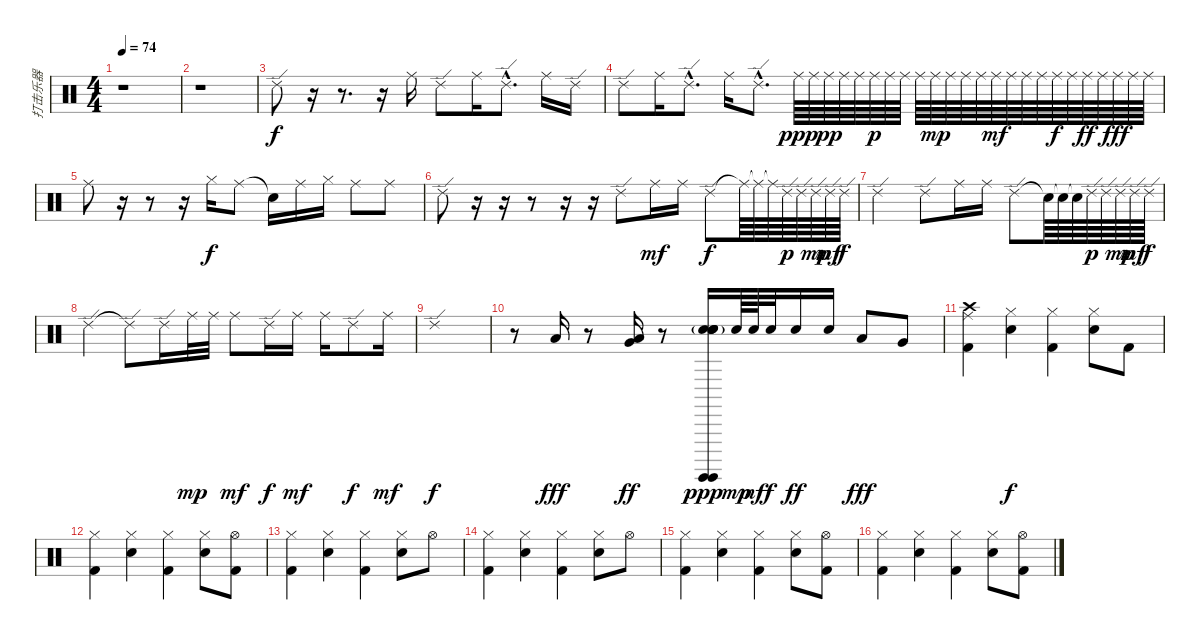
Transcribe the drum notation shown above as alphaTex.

\track ("打击乐器" "打击乐器") {instrument percussion}
\staff {score}
\articulation defaults
\ts (4 4)
\tempo 74
\clef neutral
\ks c
r.1{dy f} |
r.1 |
"Ride (edge) 2".8{volume 9} r.16 r.8{d} r.16 "Ride (middle)".16 "Ride (edge) 2".8 "Ride (middle)".16 "Ride (edge) 2"{hac}.8{d} "Ride (middle)".16 "Ride (edge) 2".16 |
"Ride (edge) 2".8 "Ride (middle)".16 "Ride (edge) 2"{hac}.8{d} "Ride (middle)".16 "Ride (edge) 2"{hac}.8{d} "Ride (middle)".64{dy ppp} "Ride (middle)".64 "Ride (middle)".64{dy pp} "Ride (middle)".64 "Ride (middle)".64 "Ride (middle)".64{dy p} "Ride (middle)".64 "Ride (middle)".64 "Ride (middle)".64 "Ride (middle)".64{dy mp} "Ride (middle)".64 "Ride (middle)".64 "Ride (middle)".64 "Ride (middle)".64{dy mf} "Ride (middle)".64 "Ride (middle)".64 "Ride (middle)".64 "Ride (middle)".64{dy f} "Ride (middle)".64 "Ride (middle)".64{dy ff} "Ride (middle)".64 "Ride (middle)".64{dy fff} "Ride (middle)".64 "Ride (middle)".64 |
"Ride (middle)".8 r.16 r.8 r.16 "Hi-Hat (closed)".16{dy f} "Ride (middle)".8 "Snare (hit)"{t}.16 "Ride (middle)".16 "Hi-Hat (closed)".16 "Ride (middle)".8 "Ride (middle)".8 |
"Ride (edge) 2".8 r.16 r.16 r.8 r.16 r.16 "Ride (edge) 2".8 "Ride (middle)".16{dy mf} "Ride (middle)".16 "Ride (edge) 2".8{dy f} "Ride (middle)"{t}.64 "Ride (middle)"{t}.64 "Ride (middle)"{t}.64 "Ride (edge) 2".64{dy p} "Ride (edge) 2".64 "Ride (edge) 2".64{dy mp} "Ride (edge) 2".64{dy mf} "Ride (edge) 2".64{dy f} |
"Ride (edge) 2".2 "Ride (edge) 2".8 "Ride (middle)".16 "Ride (middle)".16 "Ride (edge) 2".8 "Snare (hit)"{t}.64 "Snare (hit)"{t}.64 "Snare (hit)"{t}.64 "Ride (edge) 2".64{dy p} "Ride (edge) 2".64 "Ride (edge) 2".64{dy mp} "Ride (edge) 2".64{dy mf} "Ride (edge) 2".64{dy f} |
"Ride (edge) 2".4 "Ride (edge) 2"{t}.8 "Ride (edge) 2".16 "Ride (middle)".32{dy mp} "Ride (middle)".32 "Ride (middle)".8{dy mf} "Ride (edge) 2".16{dy f} "Ride (middle)".16{dy mf} "Ride (middle)".16 "Ride (edge) 2".8{dy f} "Ride (middle)".16{dy mf} |
"Ride (edge) 2".1{dy f} |
r.8{volume 14} "Low Tom (hit)".16{dy fff} r.8 ("Low Tom (hit)" "Very Low Tom (hit)").16{dy ff} r.8 ("Electric Snare (hit)"{g} "Electric Snare (hit)"{g} "Electric Snare (hit)"{g} "Surdo (hit)" "Surdo (hit)" "Electric Snare (hit)").16{bd 480 dy ppp} "Electric Snare (hit)".64{dy mp} "Electric Snare (hit)".64{dy mf} "Electric Snare (hit)".32{dy f} "Electric Snare (hit)".16{dy ff} "Electric Snare (hit)".16 "Low Tom (hit)".8{dy fff} "Very Low Tom (hit)".8 |
("Ride (middle)" "Crash high (hit)" "Kick (hit) 2").4 ("Electric Snare (hit)" "Hi-Hat (closed)").4{dy f} ("Hi-Hat (closed)" "Kick (hit) 2").4 ("Electric Snare (hit)" "Hi-Hat (closed)").8 "Kick (hit) 2".8 |
("Hi-Hat (closed)" "Kick (hit) 2").4 ("Electric Snare (hit)" "Hi-Hat (closed)").4 ("Hi-Hat (closed)" "Kick (hit) 2").4 ("Electric Snare (hit)" "Hi-Hat (closed)").8 ("Hi-Hat (open)" "Kick (hit) 2").8 |
("Hi-Hat (closed)" "Kick (hit) 2").4 ("Electric Snare (hit)" "Hi-Hat (closed)").4 ("Hi-Hat (closed)" "Kick (hit) 2").4 ("Electric Snare (hit)" "Hi-Hat (closed)").8 "Hi-Hat (open)".8 |
("Hi-Hat (closed)" "Kick (hit) 2").4 ("Electric Snare (hit)" "Hi-Hat (closed)").4 ("Hi-Hat (closed)" "Kick (hit) 2").4 ("Electric Snare (hit)" "Hi-Hat (closed)").8 "Hi-Hat (open)".8 |
("Hi-Hat (closed)" "Kick (hit) 2").4 ("Electric Snare (hit)" "Hi-Hat (closed)").4 ("Hi-Hat (closed)" "Kick (hit) 2").4 ("Electric Snare (hit)" "Hi-Hat (closed)").8 ("Hi-Hat (open)" "Kick (hit) 2").8 |
("Hi-Hat (closed)" "Kick (hit) 2").4 ("Electric Snare (hit)" "Hi-Hat (closed)").4 ("Hi-Hat (closed)" "Kick (hit) 2").4 ("Electric Snare (hit)" "Hi-Hat (closed)").8 ("Hi-Hat (open)" "Kick (hit) 2").8
